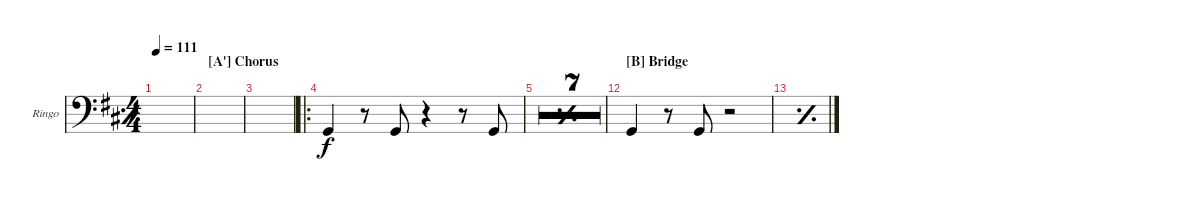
\defaultSystemsLayout 4
\bracketExtendMode groupsimilarinstruments
\firstSystemTrackNameOrientation horizontal
\otherSystemsTrackNameOrientation horizontal
\track ("Ringo Starr - Legs" "Ringo") {multiBarRest instrument percussion}
\staff {score}
\articulation defaults
\ts (4 4)
\tempo 111
\clef f4
\simile simple
\scale
0.333333
\ks d
|
\section ("A'" "Chorus")
\scale
0.333333 |
\scale
0.311111 |
\ro
\simile none
\scale
0.377778 "Kick (hit)".4 r.8 "Kick (hit)".8 r.4 r.8 "Kick (hit)".8 |
\simile simple
\scale
0.311111 |
\scale
0.333333 |
\scale
0.333333 |
\scale
0.333333 |
\scale
0.333333 |
\scale
0.333333 |
\simile none
\scale
0.333333 r.1 |
\section ("B" "Bridge")
\scale
0.333333 "Kick (hit)".4 r.8 "Kick (hit)".8 r.2 |
\simile simple
\scale
0.333333 |
\scale
0.333333 |
\scale
0.333333 |
\scale
0.333333
